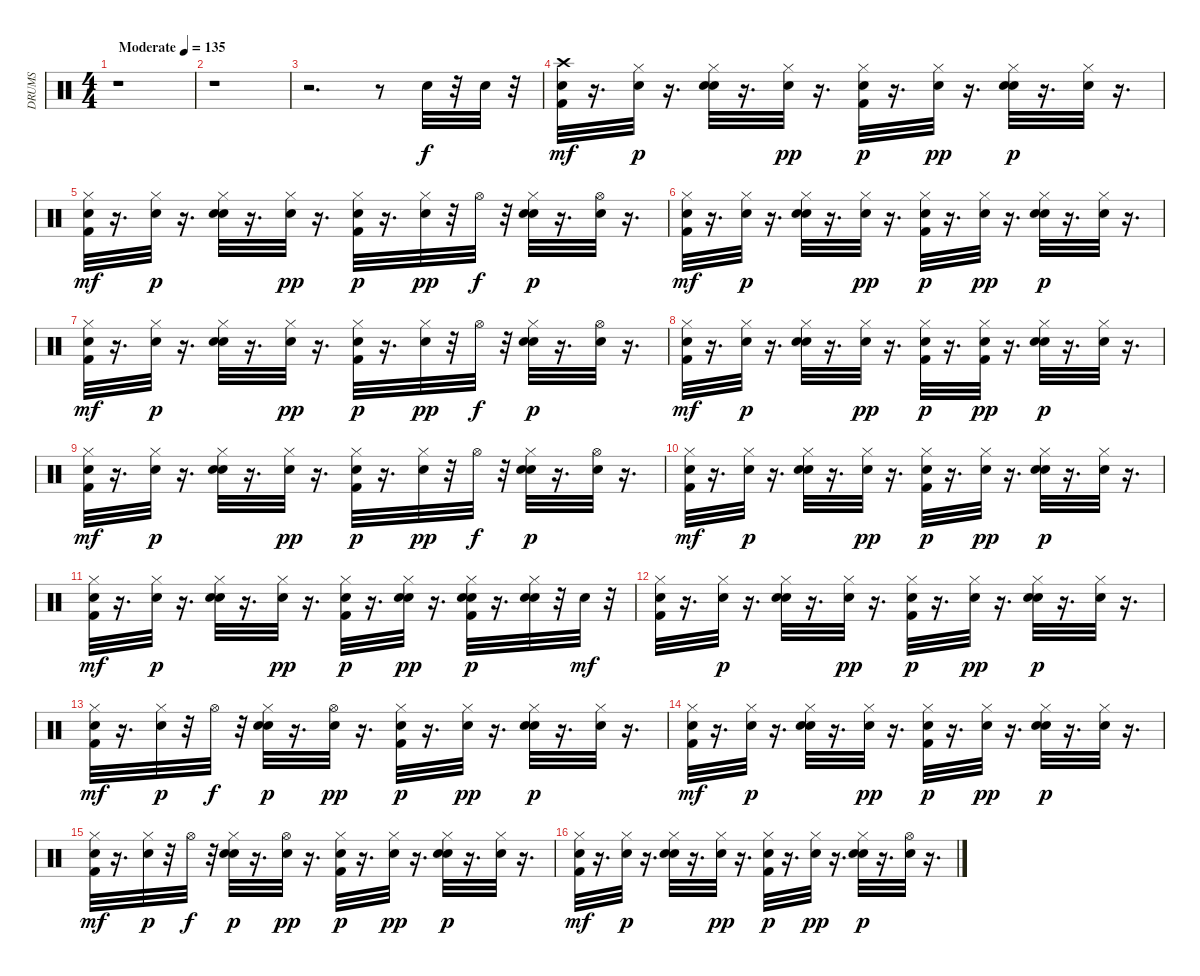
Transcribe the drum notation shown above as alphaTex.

\track ("DRUMS" "DRUMS") {instrument percussion}
\staff {score}
\articulation defaults
\ts (4 4)
\tempo (135 "Moderate")
\clef neutral
\ks c
r.1{dy f} |
r.1 |
r.2{d} r.8 "Electric Snare (hit)".32 r.32 "Electric Snare (hit)".32 r.32 |
("Kick (hit) 2" "Hand Clap (hit)" "Crash high (hit)").32{dy mf} r.16{d} ("Hi-Hat (closed)" "Hand Clap (hit)").32{dy p} r.16{d} ("Hi-Hat (closed)" "Electric Snare (hit)" "Hand Clap (hit)").32 r.16{d} ("Hi-Hat (closed)" "Hand Clap (hit)").32{dy pp} r.16{d} ("Hi-Hat (closed)" "Kick (hit) 2" "Hand Clap (hit)").32{dy p} r.16{d} ("Hi-Hat (closed)" "Hand Clap (hit)").32{dy pp} r.16{d} ("Electric Snare (hit)" "Hi-Hat (closed)" "Hand Clap (hit)").32{dy p} r.16{d} ("Hi-Hat (closed)" "Hand Clap (hit)").32 r.16{d} |
("Kick (hit) 2" "Hand Clap (hit)" "Hi-Hat (closed)").32{dy mf} r.16{d} ("Hi-Hat (closed)" "Hand Clap (hit)").32{dy p} r.16{d} ("Hi-Hat (closed)" "Electric Snare (hit)" "Hand Clap (hit)").32 r.16{d} ("Hi-Hat (closed)" "Hand Clap (hit)").32{dy pp} r.16{d} ("Kick (hit) 2" "Hi-Hat (closed)" "Hand Clap (hit)").32{dy p} r.16{d} ("Hi-Hat (closed)" "Hand Clap (hit)").32{dy pp} r.32 "Hi-Hat (open)".32{dy f} r.32 ("Hi-Hat (closed)" "Electric Snare (hit)" "Hand Clap (hit)").32{dy p} r.16{d} ("Hi-Hat (open)" "Hand Clap (hit)").32 r.16{d} |
("Kick (hit) 2" "Hand Clap (hit)" "Hi-Hat (closed)").32{dy mf} r.16{d} ("Hi-Hat (closed)" "Hand Clap (hit)").32{dy p} r.16{d} ("Hi-Hat (closed)" "Electric Snare (hit)" "Hand Clap (hit)").32 r.16{d} ("Hi-Hat (closed)" "Hand Clap (hit)").32{dy pp} r.16{d} ("Hi-Hat (closed)" "Kick (hit) 2" "Hand Clap (hit)").32{dy p} r.16{d} ("Hi-Hat (closed)" "Hand Clap (hit)").32{dy pp} r.16{d} ("Electric Snare (hit)" "Hi-Hat (closed)" "Hand Clap (hit)").32{dy p} r.16{d} ("Hi-Hat (closed)" "Hand Clap (hit)").32 r.16{d} |
("Kick (hit) 2" "Hand Clap (hit)" "Hi-Hat (closed)").32{dy mf} r.16{d} ("Hi-Hat (closed)" "Hand Clap (hit)").32{dy p} r.16{d} ("Hi-Hat (closed)" "Electric Snare (hit)" "Hand Clap (hit)").32 r.16{d} ("Hi-Hat (closed)" "Hand Clap (hit)").32{dy pp} r.16{d} ("Kick (hit) 2" "Hi-Hat (closed)" "Hand Clap (hit)").32{dy p} r.16{d} ("Hi-Hat (closed)" "Hand Clap (hit)").32{dy pp} r.32 "Hi-Hat (open)".32{dy f} r.32 ("Hi-Hat (closed)" "Electric Snare (hit)" "Hand Clap (hit)").32{dy p} r.16{d} ("Hi-Hat (open)" "Hand Clap (hit)").32 r.16{d} |
("Kick (hit) 2" "Hand Clap (hit)" "Hi-Hat (closed)").32{dy mf} r.16{d} ("Hi-Hat (closed)" "Hand Clap (hit)").32{dy p} r.16{d} ("Hi-Hat (closed)" "Electric Snare (hit)" "Hand Clap (hit)").32 r.16{d} ("Hi-Hat (closed)" "Hand Clap (hit)").32{dy pp} r.16{d} ("Hi-Hat (closed)" "Kick (hit) 2" "Hand Clap (hit)").32{dy p} r.16{d} ("Hi-Hat (closed)" "Kick (hit) 2" "Hand Clap (hit)").32{dy pp} r.16{d} ("Electric Snare (hit)" "Hi-Hat (closed)" "Hand Clap (hit)").32{dy p} r.16{d} ("Hi-Hat (closed)" "Hand Clap (hit)").32 r.16{d} |
("Kick (hit) 2" "Hand Clap (hit)" "Hi-Hat (closed)").32{dy mf} r.16{d} ("Hi-Hat (closed)" "Hand Clap (hit)").32{dy p} r.16{d} ("Hi-Hat (closed)" "Electric Snare (hit)" "Hand Clap (hit)").32 r.16{d} ("Hi-Hat (closed)" "Hand Clap (hit)").32{dy pp} r.16{d} ("Kick (hit) 2" "Hi-Hat (closed)" "Hand Clap (hit)").32{dy p} r.16{d} ("Hi-Hat (closed)" "Hand Clap (hit)").32{dy pp} r.32 "Hi-Hat (open)".32{dy f} r.32 ("Hi-Hat (closed)" "Electric Snare (hit)" "Hand Clap (hit)").32{dy p} r.16{d} ("Hi-Hat (open)" "Hand Clap (hit)").32 r.16{d} |
("Kick (hit) 2" "Hand Clap (hit)" "Hi-Hat (closed)").32{dy mf} r.16{d} ("Hi-Hat (closed)" "Hand Clap (hit)").32{dy p} r.16{d} ("Hi-Hat (closed)" "Electric Snare (hit)" "Hand Clap (hit)").32 r.16{d} ("Hi-Hat (closed)" "Hand Clap (hit)").32{dy pp} r.16{d} ("Hi-Hat (closed)" "Kick (hit) 2" "Hand Clap (hit)").32{dy p} r.16{d} ("Hi-Hat (closed)" "Hand Clap (hit)").32{dy pp} r.16{d} ("Electric Snare (hit)" "Hi-Hat (closed)" "Hand Clap (hit)").32{dy p} r.16{d} ("Hi-Hat (closed)" "Hand Clap (hit)").32 r.16{d} |
("Kick (hit) 2" "Hand Clap (hit)" "Hi-Hat (closed)").32{dy mf} r.16{d} ("Hi-Hat (closed)" "Hand Clap (hit)").32{dy p} r.16{d} ("Hi-Hat (closed)" "Electric Snare (hit)" "Hand Clap (hit)").32 r.16{d} ("Hi-Hat (closed)" "Hand Clap (hit)").32{dy pp} r.16{d} ("Kick (hit) 2" "Hi-Hat (closed)" "Hand Clap (hit)").32{dy p} r.16{d} ("Electric Snare (hit)" "Hi-Hat (closed)" "Hand Clap (hit)").32{dy pp} r.16{d} ("Hi-Hat (closed)" "Electric Snare (hit)" "Kick (hit) 2" "Hand Clap (hit)").32{dy p} r.16{d} ("Electric Snare (hit)" "Hi-Hat (closed)" "Hand Clap (hit)").32 r.32 "Electric Snare (hit)".32{dy mf} r.32 |
("Kick (hit) 2" "Hand Clap (hit)" "Hi-Hat (closed)").32 r.16{d} ("Hi-Hat (closed)" "Hand Clap (hit)").32{dy p} r.16{d} ("Hi-Hat (closed)" "Electric Snare (hit)" "Hand Clap (hit)").32 r.16{d} ("Hi-Hat (closed)" "Hand Clap (hit)").32{dy pp} r.16{d} ("Hi-Hat (closed)" "Kick (hit) 2" "Hand Clap (hit)").32{dy p} r.16{d} ("Hi-Hat (closed)" "Hand Clap (hit)").32{dy pp} r.16{d} ("Electric Snare (hit)" "Hi-Hat (closed)" "Hand Clap (hit)").32{dy p} r.16{d} ("Hi-Hat (closed)" "Hand Clap (hit)").32 r.16{d} |
("Kick (hit) 2" "Hand Clap (hit)" "Hi-Hat (closed)").32{dy mf} r.16{d} ("Hi-Hat (closed)" "Hand Clap (hit)").32{dy p} r.32 "Hi-Hat (open)".32{dy f} r.32 ("Hi-Hat (closed)" "Electric Snare (hit)" "Hand Clap (hit)").32{dy p} r.16{d} ("Hi-Hat (open)" "Hand Clap (hit)").32{dy pp} r.16{d} ("Kick (hit) 2" "Hi-Hat (closed)" "Hand Clap (hit)").32{dy p} r.16{d} ("Hi-Hat (closed)" "Hand Clap (hit)").32{dy pp} r.16{d} ("Hi-Hat (closed)" "Electric Snare (hit)" "Hand Clap (hit)").32{dy p} r.16{d} ("Hi-Hat (closed)" "Hand Clap (hit)").32 r.16{d} |
("Kick (hit) 2" "Hand Clap (hit)" "Hi-Hat (closed)").32{dy mf} r.16{d} ("Hi-Hat (closed)" "Hand Clap (hit)").32{dy p} r.16{d} ("Hi-Hat (closed)" "Electric Snare (hit)" "Hand Clap (hit)").32 r.16{d} ("Hi-Hat (closed)" "Hand Clap (hit)").32{dy pp} r.16{d} ("Hi-Hat (closed)" "Kick (hit) 2" "Hand Clap (hit)").32{dy p} r.16{d} ("Hi-Hat (closed)" "Hand Clap (hit)").32{dy pp} r.16{d} ("Electric Snare (hit)" "Hi-Hat (closed)" "Hand Clap (hit)").32{dy p} r.16{d} ("Hi-Hat (closed)" "Hand Clap (hit)").32 r.16{d} |
("Kick (hit) 2" "Hand Clap (hit)" "Hi-Hat (closed)").32{dy mf} r.16{d} ("Hi-Hat (closed)" "Hand Clap (hit)").32{dy p} r.32 "Hi-Hat (open)".32{dy f} r.32 ("Hi-Hat (closed)" "Electric Snare (hit)" "Hand Clap (hit)").32{dy p} r.16{d} ("Hi-Hat (open)" "Hand Clap (hit)").32{dy pp} r.16{d} ("Kick (hit) 2" "Hi-Hat (closed)" "Hand Clap (hit)").32{dy p} r.16{d} ("Hi-Hat (closed)" "Hand Clap (hit)").32{dy pp} r.16{d} ("Hi-Hat (closed)" "Electric Snare (hit)" "Hand Clap (hit)").32{dy p} r.16{d} ("Hi-Hat (closed)" "Hand Clap (hit)").32 r.16{d} |
("Kick (hit) 2" "Hand Clap (hit)" "Hi-Hat (closed)").32{dy mf} r.16{d} ("Hi-Hat (closed)" "Hand Clap (hit)").32{dy p} r.16{d} ("Hi-Hat (closed)" "Electric Snare (hit)" "Hand Clap (hit)").32 r.16{d} ("Hi-Hat (closed)" "Hand Clap (hit)").32{dy pp} r.16{d} ("Hi-Hat (closed)" "Kick (hit) 2" "Hand Clap (hit)").32{dy p} r.16{d} ("Hi-Hat (closed)" "Hand Clap (hit)").32{dy pp} r.16{d} ("Electric Snare (hit)" "Hi-Hat (closed)" "Hand Clap (hit)").32{dy p} r.16{d} ("Hi-Hat (open)" "Hand Clap (hit)").32 r.16{d}
